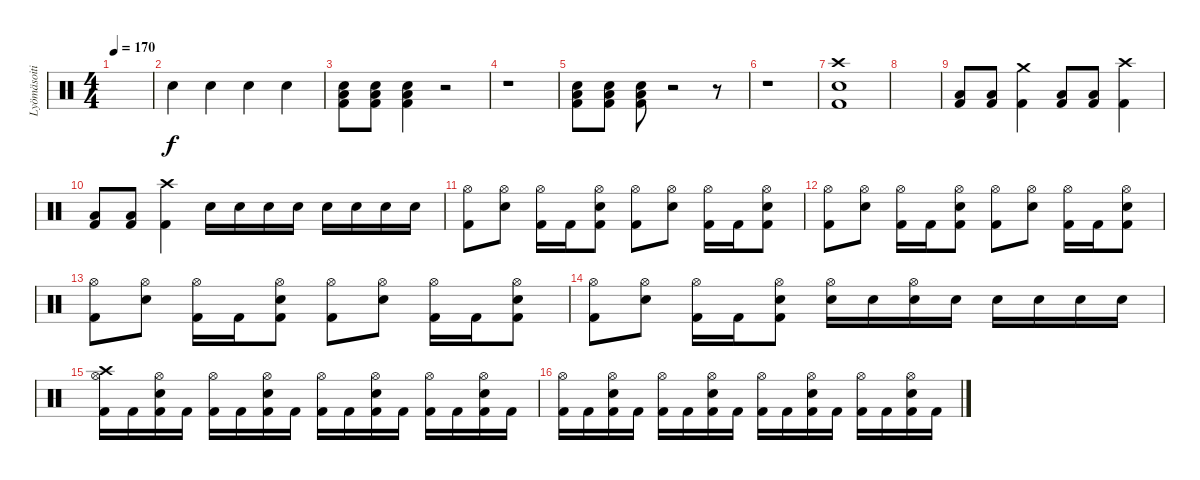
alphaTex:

\track ("Lyömäsoitin" "Lyömäsoiti") {instrument percussion}
\staff {score}
\articulation defaults
\ts (4 4)
\tempo 170
\clef neutral
\ks c
|
"Snare (hit) 2".4 "Snare (hit) 2".4 "Snare (hit) 2".4 "Snare (hit) 2".4 |
("Kick (hit) 2" "Low Floor Tom (hit)" "Snare (hit) 2").8 ("Kick (hit) 2" "Low Floor Tom (hit)" "Snare (hit) 2").8 ("Kick (hit) 2" "Low Floor Tom (hit)" "Snare (hit) 2").4 r.2 |
r.1 |
("Kick (hit) 2" "Low Floor Tom (hit)" "Snare (hit) 2").8 ("Kick (hit) 2" "Low Floor Tom (hit)" "Snare (hit) 2").8 ("Kick (hit) 2" "Low Floor Tom (hit)" "Snare (hit) 2").8 r.2 r.8 |
r.1 |
("Kick (hit) 2" "Snare (hit) 2" "Crash high (hit)").1 |
|
("Kick (hit) 2" "Low Floor Tom (hit)").8 ("Kick (hit) 2" "Low Floor Tom (hit)").8 ("Kick (hit) 2" "Crash medium (hit)").4 ("Kick (hit) 2" "Low Floor Tom (hit)").8 ("Kick (hit) 2" "Low Floor Tom (hit)").8 ("Kick (hit) 2" "Crash high (hit)").4 |
("Kick (hit) 2" "Low Floor Tom (hit)").8 ("Kick (hit) 2" "Low Floor Tom (hit)").8 ("Kick (hit) 2" "Crash high (hit)").4 "Snare (hit) 2".16 "Snare (hit) 2".16 "Snare (hit) 2".16 "Snare (hit) 2".16 "Snare (hit) 2".16 "Snare (hit) 2".16 "Snare (hit) 2".16 "Snare (hit) 2".16 |
("Kick (hit) 2" "Hi-Hat (open)").8 ("Snare (hit) 2" "Hi-Hat (open)").8 ("Kick (hit) 2" "Hi-Hat (open)").16 "Kick (hit) 2".16 ("Kick (hit) 2" "Snare (hit) 2" "Hi-Hat (open)").8 ("Kick (hit) 2" "Hi-Hat (open)").8 ("Snare (hit) 2" "Hi-Hat (open)").8 ("Kick (hit) 2" "Hi-Hat (open)").16 "Kick (hit) 2".16 ("Kick (hit) 2" "Snare (hit) 2" "Hi-Hat (open)").8 |
("Kick (hit) 2" "Hi-Hat (open)").8 ("Snare (hit) 2" "Hi-Hat (open)").8 ("Kick (hit) 2" "Hi-Hat (open)").16 "Kick (hit) 2".16 ("Kick (hit) 2" "Snare (hit) 2" "Hi-Hat (open)").8 ("Kick (hit) 2" "Hi-Hat (open)").8 ("Snare (hit) 2" "Hi-Hat (open)").8 ("Kick (hit) 2" "Hi-Hat (open)").16 "Kick (hit) 2".16 ("Kick (hit) 2" "Snare (hit) 2" "Hi-Hat (open)").8 |
("Kick (hit) 2" "Hi-Hat (open)").8 ("Snare (hit) 2" "Hi-Hat (open)").8 ("Kick (hit) 2" "Hi-Hat (open)").16 "Kick (hit) 2".16 ("Kick (hit) 2" "Snare (hit) 2" "Hi-Hat (open)").8 ("Kick (hit) 2" "Hi-Hat (open)").8 ("Snare (hit) 2" "Hi-Hat (open)").8 ("Kick (hit) 2" "Hi-Hat (open)").16 "Kick (hit) 2".16 ("Kick (hit) 2" "Snare (hit) 2" "Hi-Hat (open)").8 |
("Kick (hit) 2" "Hi-Hat (open)").8 ("Snare (hit) 2" "Hi-Hat (open)").8 ("Kick (hit) 2" "Hi-Hat (open)").16 "Kick (hit) 2".16 ("Kick (hit) 2" "Snare (hit) 2" "Hi-Hat (open)").8 ("Snare (hit) 2" "Hi-Hat (open)").16 "Snare (hit) 2".16 ("Snare (hit) 2" "Hi-Hat (open)").16 "Snare (hit) 2".16 "Snare (hit) 2".16 "Snare (hit) 2".16 "Snare (hit) 2".16 "Snare (hit) 2".16 |
("Kick (hit) 2" "Crash high (hit)" "Hi-Hat (open)").16 "Kick (hit) 2".16 ("Kick (hit) 2" "Snare (hit) 2" "Hi-Hat (open)").16 "Kick (hit) 2".16 ("Kick (hit) 2" "Hi-Hat (open)").16 "Kick (hit) 2".16 ("Kick (hit) 2" "Snare (hit) 2" "Hi-Hat (open)").16 "Kick (hit) 2".16 ("Kick (hit) 2" "Hi-Hat (open)").16 "Kick (hit) 2".16 ("Kick (hit) 2" "Snare (hit) 2" "Hi-Hat (open)").16 "Kick (hit) 2".16 ("Kick (hit) 2" "Hi-Hat (open)").16 "Kick (hit) 2".16 ("Kick (hit) 2" "Snare (hit) 2" "Hi-Hat (open)").16 "Kick (hit) 2".16 |
("Kick (hit) 2" "Hi-Hat (open)").16 "Kick (hit) 2".16 ("Kick (hit) 2" "Snare (hit) 2" "Hi-Hat (open)").16 "Kick (hit) 2".16 ("Kick (hit) 2" "Hi-Hat (open)").16 "Kick (hit) 2".16 ("Kick (hit) 2" "Snare (hit) 2" "Hi-Hat (open)").16 "Kick (hit) 2".16 ("Kick (hit) 2" "Hi-Hat (open)").16 "Kick (hit) 2".16 ("Kick (hit) 2" "Snare (hit) 2" "Hi-Hat (open)").16 "Kick (hit) 2".16 ("Kick (hit) 2" "Hi-Hat (open)").16 "Kick (hit) 2".16 ("Kick (hit) 2" "Snare (hit) 2" "Hi-Hat (open)").16 "Kick (hit) 2".16
